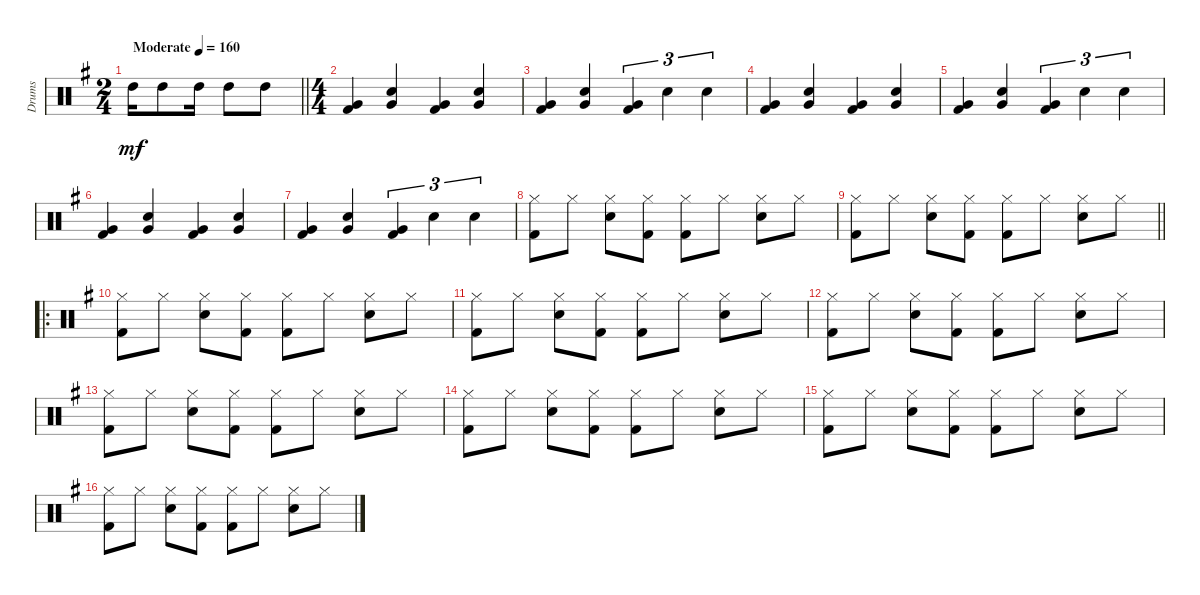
\track ("Drums" "Drums") {instrument percussion}
\staff {score}
\articulation defaults
\ts (2 4)
\tempo (160 "Moderate")
\clef neutral
\barLineRight lightlight
\ks g "High Tom (hit)".16{dy mf} "High Tom (hit)".8 "High Tom (hit)".16 "High Tom (hit)".8 "High Tom (hit)".8
|
\ts (4 4)
("Very Low Tom (hit)" "Kick (hit) 2").4 ("Very Low Tom (hit)" "Snare (hit) 2").4 ("Very Low Tom (hit)" "Kick (hit) 2").4 ("Very Low Tom (hit)" "Snare (hit) 2").4 |
("Very Low Tom (hit)" "Kick (hit) 2").4 ("Very Low Tom (hit)" "Snare (hit) 2").4 ("Very Low Tom (hit)" "Kick (hit) 2").4{tu (3 2)} "Snare (hit) 2".4{tu (3 2)} "Snare (hit) 2".4{tu (3 2)} |
("Very Low Tom (hit)" "Kick (hit) 2").4 ("Very Low Tom (hit)" "Snare (hit) 2").4 ("Very Low Tom (hit)" "Kick (hit) 2").4 ("Very Low Tom (hit)" "Snare (hit) 2").4 |
("Very Low Tom (hit)" "Kick (hit) 2").4 ("Very Low Tom (hit)" "Snare (hit) 2").4 ("Very Low Tom (hit)" "Kick (hit) 2").4{tu (3 2)} "Snare (hit) 2".4{tu (3 2)} "Snare (hit) 2".4{tu (3 2)} |
("Very Low Tom (hit)" "Kick (hit) 2").4 ("Very Low Tom (hit)" "Snare (hit) 2").4 ("Very Low Tom (hit)" "Kick (hit) 2").4 ("Very Low Tom (hit)" "Snare (hit) 2").4 |
("Very Low Tom (hit)" "Kick (hit) 2").4 ("Very Low Tom (hit)" "Snare (hit) 2").4 ("Very Low Tom (hit)" "Kick (hit) 2").4{tu (3 2)} "Snare (hit) 2".4{tu (3 2)} "Snare (hit) 2".4{tu (3 2)} |
("Hi-Hat (closed)" "Kick (hit) 2").8 "Hi-Hat (closed)".8 ("Hi-Hat (closed)" "Snare (hit) 2").8 ("Hi-Hat (closed)" "Kick (hit) 2").8 ("Hi-Hat (closed)" "Kick (hit) 2").8 "Hi-Hat (closed)".8 ("Hi-Hat (closed)" "Snare (hit) 2").8 "Hi-Hat (closed)".8 |
\barLineRight lightlight
("Kick (hit) 2" "Hi-Hat (closed)").8 "Hi-Hat (closed)".8 ("Hi-Hat (closed)" "Snare (hit) 2").8 ("Hi-Hat (closed)" "Kick (hit) 2").8 ("Hi-Hat (closed)" "Kick (hit) 2").8 "Hi-Hat (closed)".8 ("Hi-Hat (closed)" "Snare (hit) 2").8 "Hi-Hat (closed)".8 |
\ro
("Kick (hit) 2" "Hi-Hat (closed)").8 "Hi-Hat (closed)".8 ("Hi-Hat (closed)" "Snare (hit) 2").8 ("Hi-Hat (closed)" "Kick (hit) 2").8 ("Hi-Hat (closed)" "Kick (hit) 2").8 "Hi-Hat (closed)".8 ("Hi-Hat (closed)" "Snare (hit) 2").8 "Hi-Hat (closed)".8 |
("Kick (hit) 2" "Hi-Hat (closed)").8 "Hi-Hat (closed)".8 ("Hi-Hat (closed)" "Snare (hit) 2").8 ("Hi-Hat (closed)" "Kick (hit) 2").8 ("Hi-Hat (closed)" "Kick (hit) 2").8 "Hi-Hat (closed)".8 ("Hi-Hat (closed)" "Snare (hit) 2").8 "Hi-Hat (closed)".8 |
("Kick (hit) 2" "Hi-Hat (closed)").8 "Hi-Hat (closed)".8 ("Hi-Hat (closed)" "Snare (hit) 2").8 ("Hi-Hat (closed)" "Kick (hit) 2").8 ("Hi-Hat (closed)" "Kick (hit) 2").8 "Hi-Hat (closed)".8 ("Hi-Hat (closed)" "Snare (hit) 2").8 "Hi-Hat (closed)".8 |
("Kick (hit) 2" "Hi-Hat (closed)").8 "Hi-Hat (closed)".8 ("Hi-Hat (closed)" "Snare (hit) 2").8 ("Hi-Hat (closed)" "Kick (hit) 2").8 ("Hi-Hat (closed)" "Kick (hit) 2").8 "Hi-Hat (closed)".8 ("Hi-Hat (closed)" "Snare (hit) 2").8 "Hi-Hat (closed)".8 |
("Kick (hit) 2" "Hi-Hat (closed)").8 "Hi-Hat (closed)".8 ("Hi-Hat (closed)" "Snare (hit) 2").8 ("Hi-Hat (closed)" "Kick (hit) 2").8 ("Hi-Hat (closed)" "Kick (hit) 2").8 "Hi-Hat (closed)".8 ("Hi-Hat (closed)" "Snare (hit) 2").8 "Hi-Hat (closed)".8 |
("Kick (hit) 2" "Hi-Hat (closed)").8 "Hi-Hat (closed)".8 ("Hi-Hat (closed)" "Snare (hit) 2").8 ("Hi-Hat (closed)" "Kick (hit) 2").8 ("Hi-Hat (closed)" "Kick (hit) 2").8 "Hi-Hat (closed)".8 ("Hi-Hat (closed)" "Snare (hit) 2").8 "Hi-Hat (closed)".8 |
("Kick (hit) 2" "Hi-Hat (closed)").8 "Hi-Hat (closed)".8 ("Hi-Hat (closed)" "Snare (hit) 2").8 ("Hi-Hat (closed)" "Kick (hit) 2").8 ("Hi-Hat (closed)" "Kick (hit) 2").8 "Hi-Hat (closed)".8 ("Hi-Hat (closed)" "Snare (hit) 2").8 "Hi-Hat (closed)".8
